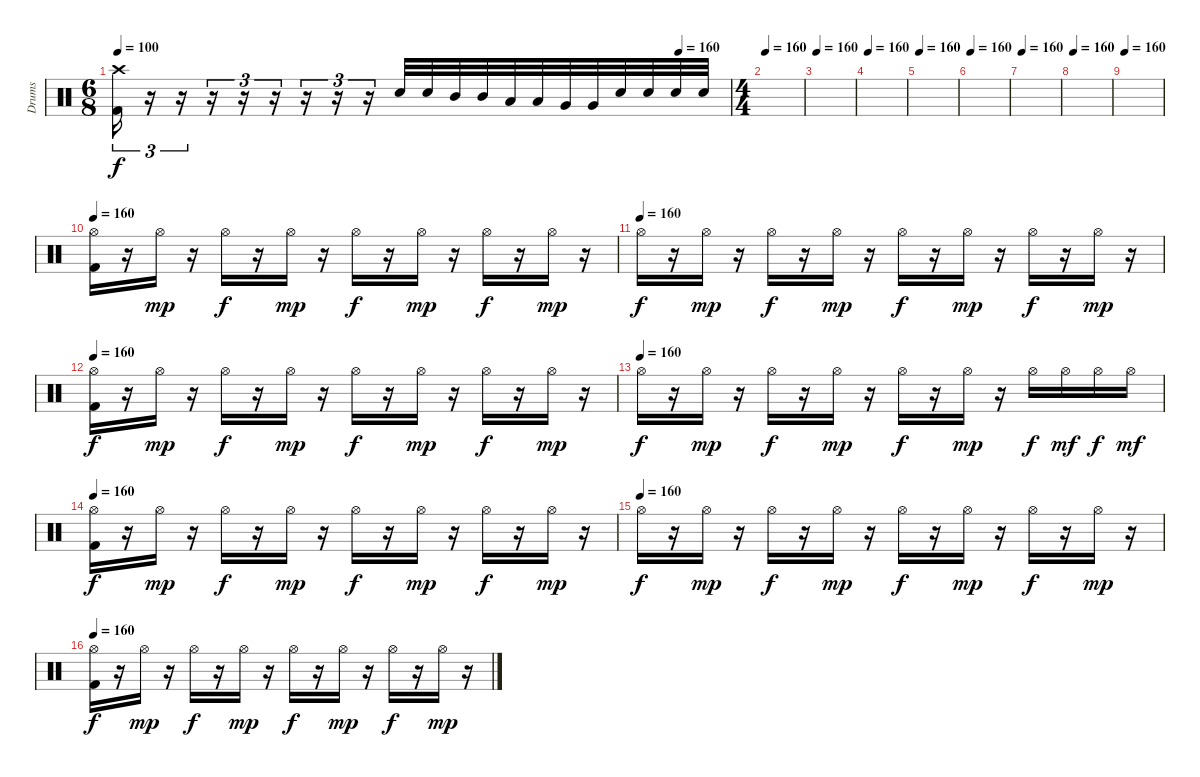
\track ("Drums" "Drums") {instrument percussion}
\staff {score}
\articulation defaults
\ts (6 8)
\tempo 100
\tempo (160 0.9166666666666666)
\clef neutral
\ks c
("Crash high (hit)" "Kick (hit) 2").16{tu (3 2) dy f} r.16{tu (3 2)} r.16{tu (3 2)} r.16{tu (3 2)} r.16{tu (3 2)} r.16{tu (3 2)} r.16{tu (3 2)} r.16{tu (3 2)} r.16{tu (3 2)} "Electric Snare (hit)".32 "Electric Snare (hit)".32 "Mid Tom (hit)".32 "Mid Tom (hit)".32 "Low Tom (hit)".32 "Low Tom (hit)".32 "Very Low Tom (hit)".32 "Very Low Tom (hit)".32 "Electric Snare (hit)".32 "Electric Snare (hit)".32 "Electric Snare (hit)".32 "Electric Snare (hit)".32 |
\ts (4 4)
\tempo 160
|
\tempo 160
|
\tempo 160
|
\tempo 160
|
\tempo 160
|
\tempo 160
|
\tempo 160
|
\tempo 160
|
\tempo 160
("Hi-Hat (open)" "Kick (hit) 2").16 r.16 "Hi-Hat (open)".16{dy mp} r.16 "Hi-Hat (open)".16{dy f} r.16 "Hi-Hat (open)".16{dy mp} r.16 "Hi-Hat (open)".16{dy f} r.16 "Hi-Hat (open)".16{dy mp} r.16 "Hi-Hat (open)".16{dy f} r.16 "Hi-Hat (open)".16{dy mp} r.16 |
\tempo (160)
"Hi-Hat (open)".16{dy f} r.16 "Hi-Hat (open)".16{dy mp} r.16 "Hi-Hat (open)".16{dy f} r.16 "Hi-Hat (open)".16{dy mp} r.16 "Hi-Hat (open)".16{dy f} r.16 "Hi-Hat (open)".16{dy mp} r.16 "Hi-Hat (open)".16{dy f} r.16 "Hi-Hat (open)".16{dy mp} r.16 |
\tempo 160
("Hi-Hat (open)" "Kick (hit) 2").16{dy f} r.16 "Hi-Hat (open)".16{dy mp} r.16 "Hi-Hat (open)".16{dy f} r.16 "Hi-Hat (open)".16{dy mp} r.16 "Hi-Hat (open)".16{dy f} r.16 "Hi-Hat (open)".16{dy mp} r.16 "Hi-Hat (open)".16{dy f} r.16 "Hi-Hat (open)".16{dy mp} r.16 |
\tempo (160)
"Hi-Hat (open)".16{dy f} r.16 "Hi-Hat (open)".16{dy mp} r.16 "Hi-Hat (open)".16{dy f} r.16 "Hi-Hat (open)".16{dy mp} r.16 "Hi-Hat (open)".16{dy f} r.16 "Hi-Hat (open)".16{dy mp} r.16 "Hi-Hat (open)".16{dy f} "Hi-Hat (open)".16{dy mf} "Hi-Hat (open)".16{dy f} "Hi-Hat (open)".16{dy mf} |
\tempo 160
("Hi-Hat (open)" "Kick (hit) 2").16{dy f} r.16 "Hi-Hat (open)".16{dy mp} r.16 "Hi-Hat (open)".16{dy f} r.16 "Hi-Hat (open)".16{dy mp} r.16 "Hi-Hat (open)".16{dy f} r.16 "Hi-Hat (open)".16{dy mp} r.16 "Hi-Hat (open)".16{dy f} r.16 "Hi-Hat (open)".16{dy mp} r.16 |
\tempo (160)
"Hi-Hat (open)".16{dy f} r.16 "Hi-Hat (open)".16{dy mp} r.16 "Hi-Hat (open)".16{dy f} r.16 "Hi-Hat (open)".16{dy mp} r.16 "Hi-Hat (open)".16{dy f} r.16 "Hi-Hat (open)".16{dy mp} r.16 "Hi-Hat (open)".16{dy f} r.16 "Hi-Hat (open)".16{dy mp} r.16 |
\tempo 160
("Hi-Hat (open)" "Kick (hit) 2").16{dy f} r.16 "Hi-Hat (open)".16{dy mp} r.16 "Hi-Hat (open)".16{dy f} r.16 "Hi-Hat (open)".16{dy mp} r.16 "Hi-Hat (open)".16{dy f} r.16 "Hi-Hat (open)".16{dy mp} r.16 "Hi-Hat (open)".16{dy f} r.16 "Hi-Hat (open)".16{dy mp} r.16
